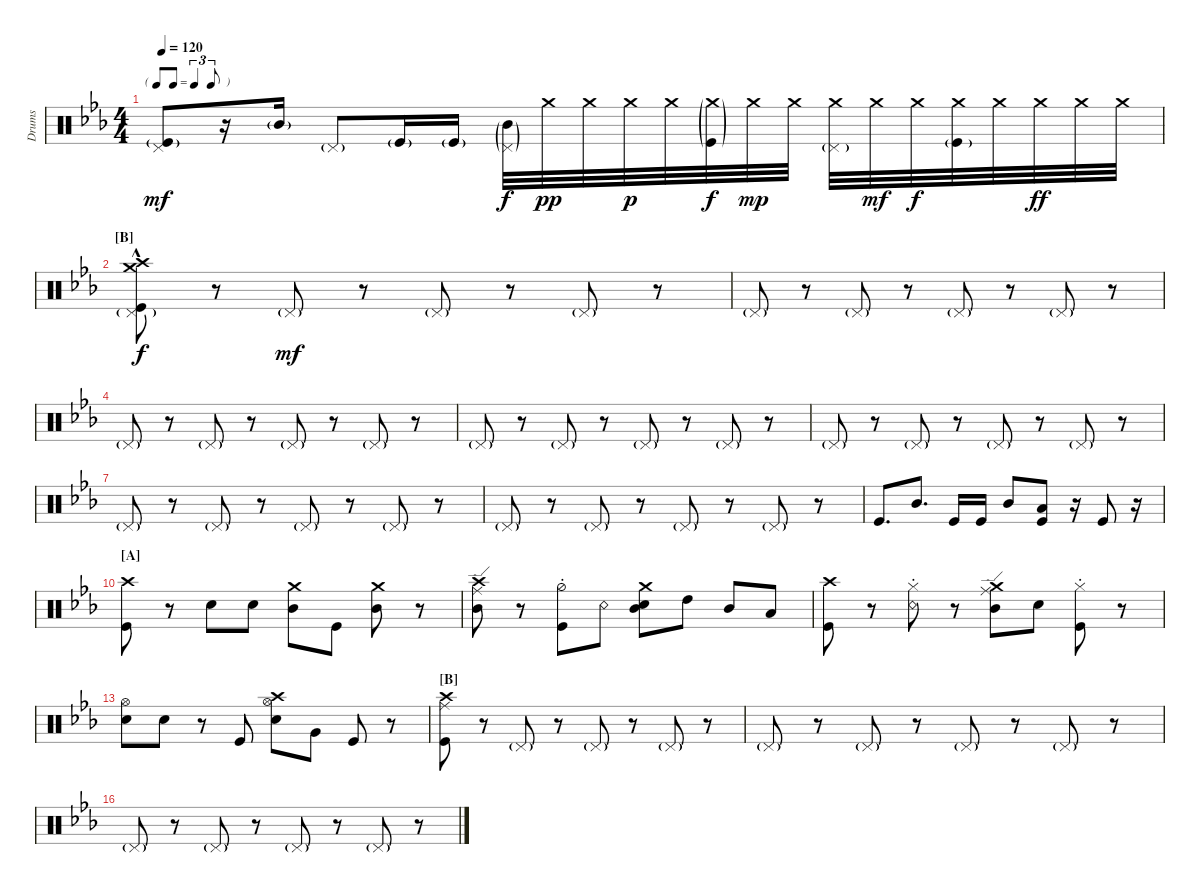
\bracketExtendMode nobrackets
\otherSystemsTrackNameOrientation horizontal
\defaultBarNumberDisplay FirstOfSystem
\track ("Drumkit" "Drums") {instrument percussion}
\staff {score}
\articulation defaults
\ts (4 4)
\tf triplet8th
\tempo 120
\clef neutral
\ks cminor
("Pedal Hi-Hat (hit)" "Kick (hit)"{g}).8{dy mf} r.16 "Mid Tom (hit)"{g}.16 "Pedal Hi-Hat (hit)"{g}.8 "Kick (hit)"{g}.16 "Kick (hit)"{g}.16 ("Pedal Hi-Hat (hit)"{g} "Mid Tom (hit)"{g}).32{dy f} "Crash medium (hit)".32{dy pp} "Crash medium (hit)".32 "Crash medium (hit)".32{dy p} "Crash medium (hit)".32 ("Crash medium (hit)"{g} "Kick (hit)"{g}).32{dy f} "Crash medium (hit)".32{dy mp} "Crash medium (hit)".32 ("Crash medium (hit)" "Pedal Hi-Hat (hit)"{g}).32 "Crash medium (hit)".32{dy mf} "Crash medium (hit)".32{dy f} ("Crash medium (hit)" "Kick (hit)"{g}).32 "Crash medium (hit)".32 "Crash medium (hit)".32{dy ff} "Crash medium (hit)".32 "Crash medium (hit)".32 |
\section ("B" "")
("Pedal Hi-Hat (hit)"{g} "Crash medium (hit)"{hac} "Crash high (hit)"{hac} "Kick (hit)").8{dy f} r.8 "Pedal Hi-Hat (hit)"{g}.8{dy mf} r.8 "Pedal Hi-Hat (hit)"{g}.8 r.8 "Pedal Hi-Hat (hit)"{g}.8 r.8 |
"Pedal Hi-Hat (hit)"{g}.8 r.8 "Pedal Hi-Hat (hit)"{g}.8 r.8 "Pedal Hi-Hat (hit)"{g}.8 r.8 "Pedal Hi-Hat (hit)"{g}.8 r.8 |
"Pedal Hi-Hat (hit)"{g}.8 r.8 "Pedal Hi-Hat (hit)"{g}.8 r.8 "Pedal Hi-Hat (hit)"{g}.8 r.8 "Pedal Hi-Hat (hit)"{g}.8 r.8 |
"Pedal Hi-Hat (hit)"{g}.8 r.8 "Pedal Hi-Hat (hit)"{g}.8 r.8 "Pedal Hi-Hat (hit)"{g}.8 r.8 "Pedal Hi-Hat (hit)"{g}.8 r.8 |
"Pedal Hi-Hat (hit)"{g}.8 r.8 "Pedal Hi-Hat (hit)"{g}.8 r.8 "Pedal Hi-Hat (hit)"{g}.8 r.8 "Pedal Hi-Hat (hit)"{g}.8 r.8 |
"Pedal Hi-Hat (hit)"{g}.8 r.8 "Pedal Hi-Hat (hit)"{g}.8 r.8 "Pedal Hi-Hat (hit)"{g}.8 r.8 "Pedal Hi-Hat (hit)"{g}.8 r.8 |
"Pedal Hi-Hat (hit)"{g}.8 r.8 "Pedal Hi-Hat (hit)"{g}.8 r.8 "Pedal Hi-Hat (hit)"{g}.8 r.8 "Pedal Hi-Hat (hit)"{g}.8 r.8 |
"Kick (hit)".8{d} "Mid Tom (hit)".8{d} "Kick (hit)".16 "Kick (hit)".16 "Mid Tom (hit)".8 ("Low Tom (hit)" "Kick (hit)").8 r.16 "Kick (hit)".8 r.16 |
\section ("A" "")
("Crash high (hit)" "Kick (hit)").8 r.8 "Snare (hit) 2".8 "Snare (hit) 2".8 ("Mid Tom (hit)" "Crash medium (hit)").8 "Kick (hit)".8 ("Mid Tom (hit)" "Crash medium (hit)").8 r.8 |
("Ride (edge)" "Mid Tom (hit)" "Crash high (hit)").8 r.8 ("Hi-Hat (half)"{st} "Kick (hit)").8 "Snare (rim shot)".8 ("Mid Tom (hit)" "Crash medium (hit)" "Snare (hit) 2").8 "High Tom (hit)".8 "Mid Tom (hit)".8 "Low Tom (hit)".8 |
("Crash high (hit)" "Kick (hit)").8 r.8 ("Hi-Hat (closed)"{st} "Snare (rim shot)").8 r.8 ("Ride (edge)" "Crash medium (hit)" "Mid Tom (hit)").8 "Snare (hit) 2".8 ("Hi-Hat (closed)"{st} "Kick (hit)").8 r.8 |
("Snare (hit) 2" "Hi-Hat (open)").8 "Snare (hit) 2".8 r.8 "Kick (hit)".8 ("Snare (hit) 2" "Crash high (hit)" "Hi-Hat (open)").8 "Very Low Tom (hit)".8 "Kick (hit)".8 r.8 |
\section ("B" "")
("Crash high (hit)" "Ride (middle)" "Kick (hit)").8 r.8 "Pedal Hi-Hat (hit)"{g}.8 r.8 "Pedal Hi-Hat (hit)"{g}.8 r.8 "Pedal Hi-Hat (hit)"{g}.8 r.8 |
"Pedal Hi-Hat (hit)"{g}.8 r.8 "Pedal Hi-Hat (hit)"{g}.8 r.8 "Pedal Hi-Hat (hit)"{g}.8 r.8 "Pedal Hi-Hat (hit)"{g}.8 r.8 |
"Pedal Hi-Hat (hit)"{g}.8 r.8 "Pedal Hi-Hat (hit)"{g}.8 r.8 "Pedal Hi-Hat (hit)"{g}.8 r.8 "Pedal Hi-Hat (hit)"{g}.8 r.8
